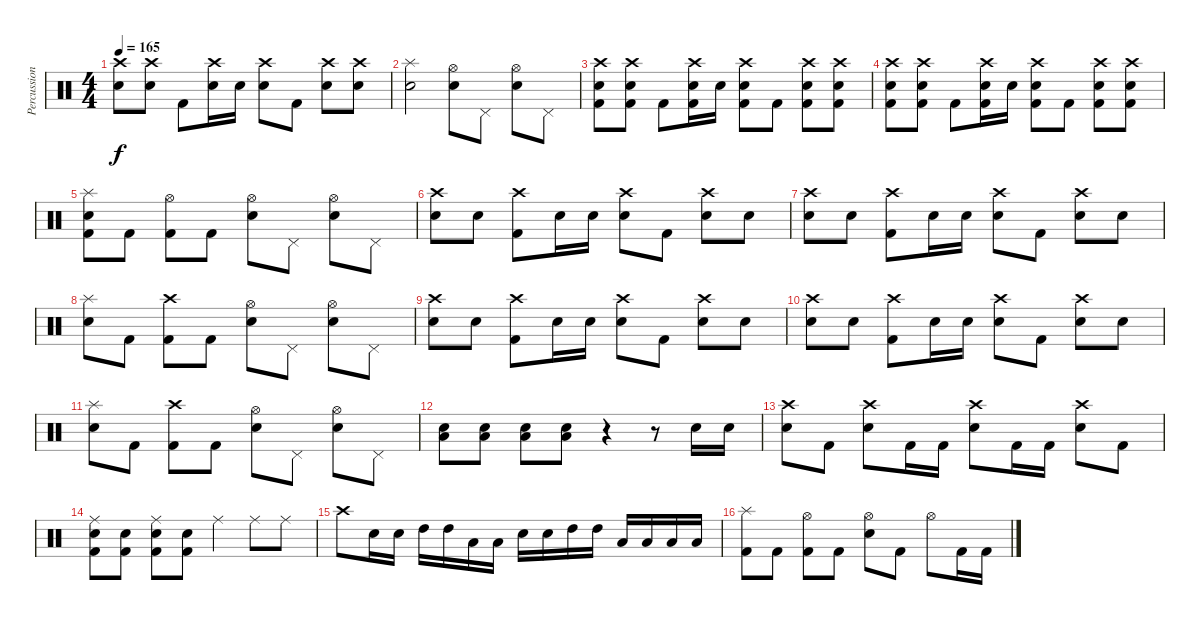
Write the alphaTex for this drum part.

\track ("Percussion" "Percussion") {instrument percussion}
\staff {score}
\articulation defaults
\ts (4 4)
\tempo 165
\clef neutral
\ks c
("Crash high (hit)" "Electric Snare (hit)").8{dy f} ("Crash high (hit)" "Electric Snare (hit)").8 "Kick (hit) 2".8 ("Crash high (hit)" "Electric Snare (hit)").16 "Electric Snare (hit)".16 ("Crash high (hit)" "Electric Snare (hit)").8 "Kick (hit) 2".8 ("Crash high (hit)" "Electric Snare (hit)").8 ("Crash high (hit)" "Electric Snare (hit)").8 |
("Splash (hit)" "Electric Snare (hit)").2 ("Hi-Hat (open)" "Electric Snare (hit)").8 "Pedal Hi-Hat (hit)".8 ("Hi-Hat (open)" "Electric Snare (hit)").8 "Pedal Hi-Hat (hit)".8 |
("Crash high (hit)" "Electric Snare (hit)" "Kick (hit) 2").8 ("Crash high (hit)" "Electric Snare (hit)" "Kick (hit) 2").8 "Kick (hit) 2".8 ("Crash high (hit)" "Electric Snare (hit)" "Kick (hit) 2").16 "Electric Snare (hit)".16 ("Crash high (hit)" "Electric Snare (hit)" "Kick (hit) 2").8 "Kick (hit) 2".8 ("Crash high (hit)" "Electric Snare (hit)" "Kick (hit) 2").8 ("Crash high (hit)" "Electric Snare (hit)" "Kick (hit) 2").8 |
("Crash high (hit)" "Electric Snare (hit)" "Kick (hit) 2").8 ("Crash high (hit)" "Electric Snare (hit)" "Kick (hit) 2").8 "Kick (hit) 2".8 ("Crash high (hit)" "Electric Snare (hit)" "Kick (hit) 2").16 "Electric Snare (hit)".16 ("Crash high (hit)" "Electric Snare (hit)" "Kick (hit) 2").8 "Kick (hit) 2".8 ("Crash high (hit)" "Electric Snare (hit)" "Kick (hit) 2").8 ("Crash high (hit)" "Electric Snare (hit)" "Kick (hit) 2").8 |
("Splash (hit)" "Electric Snare (hit)" "Kick (hit) 2").8 "Kick (hit) 2".8 ("Hi-Hat (open)" "Kick (hit) 2").8 "Kick (hit) 2".8 ("Hi-Hat (open)" "Electric Snare (hit)").8 "Pedal Hi-Hat (hit)".8 ("Hi-Hat (open)" "Electric Snare (hit)").8 "Pedal Hi-Hat (hit)".8 |
("Crash high (hit)" "Electric Snare (hit)").8 "Electric Snare (hit)".8 ("Crash high (hit)" "Kick (hit) 2").8 "Electric Snare (hit)".16 "Electric Snare (hit)".16 ("Crash high (hit)" "Electric Snare (hit)").8 "Kick (hit) 2".8 ("Crash high (hit)" "Electric Snare (hit)").8 "Electric Snare (hit)".8 |
("Crash high (hit)" "Electric Snare (hit)").8 "Electric Snare (hit)".8 ("Crash high (hit)" "Kick (hit) 2").8 "Electric Snare (hit)".16 "Electric Snare (hit)".16 ("Crash high (hit)" "Electric Snare (hit)").8 "Kick (hit) 2".8 ("Crash high (hit)" "Electric Snare (hit)").8 "Electric Snare (hit)".8 |
("Splash (hit)" "Electric Snare (hit)").8 "Kick (hit) 2".8 ("Crash high (hit)" "Kick (hit) 2").8 "Kick (hit) 2".8 ("Hi-Hat (open)" "Electric Snare (hit)").8 "Pedal Hi-Hat (hit)".8 ("Hi-Hat (open)" "Electric Snare (hit)").8 "Pedal Hi-Hat (hit)".8 |
("Crash high (hit)" "Electric Snare (hit)").8 "Electric Snare (hit)".8 ("Crash high (hit)" "Kick (hit) 2").8 "Electric Snare (hit)".16 "Electric Snare (hit)".16 ("Crash high (hit)" "Electric Snare (hit)").8 "Kick (hit) 2".8 ("Crash high (hit)" "Electric Snare (hit)").8 "Electric Snare (hit)".8 |
("Crash high (hit)" "Electric Snare (hit)").8 "Electric Snare (hit)".8 ("Crash high (hit)" "Kick (hit) 2").8 "Electric Snare (hit)".16 "Electric Snare (hit)".16 ("Crash high (hit)" "Electric Snare (hit)").8 "Kick (hit) 2".8 ("Crash high (hit)" "Electric Snare (hit)").8 "Electric Snare (hit)".8 |
("Splash (hit)" "Electric Snare (hit)").8 "Kick (hit) 2".8 ("Crash high (hit)" "Kick (hit) 2").8 "Kick (hit) 2".8 ("Hi-Hat (open)" "Electric Snare (hit)").8 "Pedal Hi-Hat (hit)".8 ("Hi-Hat (open)" "Electric Snare (hit)").8 "Pedal Hi-Hat (hit)".8 |
("Electric Snare (hit)" "Low Floor Tom (hit)").8 ("Electric Snare (hit)" "Low Floor Tom (hit)").8 ("Electric Snare (hit)" "Low Floor Tom (hit)").8 ("Electric Snare (hit)" "Low Floor Tom (hit)").8 r.4 r.8 "Electric Snare (hit)".16 "Electric Snare (hit)".16 |
("Crash high (hit)" "Electric Snare (hit)").8 "Kick (hit) 2".8 ("Crash high (hit)" "Electric Snare (hit)").8 "Kick (hit) 2".16 "Kick (hit) 2".16 ("Crash high (hit)" "Electric Snare (hit)").8 "Kick (hit) 2".16 "Kick (hit) 2".16 ("Crash high (hit)" "Electric Snare (hit)").8 "Kick (hit) 2".8 |
("Ride (middle)" "Electric Snare (hit)" "Kick (hit) 2").8 ("Electric Snare (hit)" "Kick (hit) 2").8 ("Ride (middle)" "Electric Snare (hit)" "Kick (hit) 2").8 ("Electric Snare (hit)" "Kick (hit) 2").8 "Ride (middle)".4 "Ride (middle)".8 "Ride (middle)".8 |
"Crash high (hit)".8 "Electric Snare (hit)".16 "Electric Snare (hit)".16 "High Tom (hit)".16 "High Tom (hit)".16 "Low Tom (hit)".16 "Low Tom (hit)".16 "Electric Snare (hit)".16 "Electric Snare (hit)".16 "High Tom (hit)".16 "High Tom (hit)".16 "Low Tom (hit)".16 "Low Tom (hit)".16 "Low Floor Tom (hit)".16 "Low Floor Tom (hit)".16 |
("Splash (hit)" "Kick (hit) 2").8 "Kick (hit) 2".8 ("Hi-Hat (open)" "Kick (hit) 2").8 "Kick (hit) 2".8 ("Hi-Hat (open)" "Electric Snare (hit)").8 "Kick (hit) 2".8 "Hi-Hat (open)".8 "Kick (hit) 2".16 "Kick (hit) 2".16
